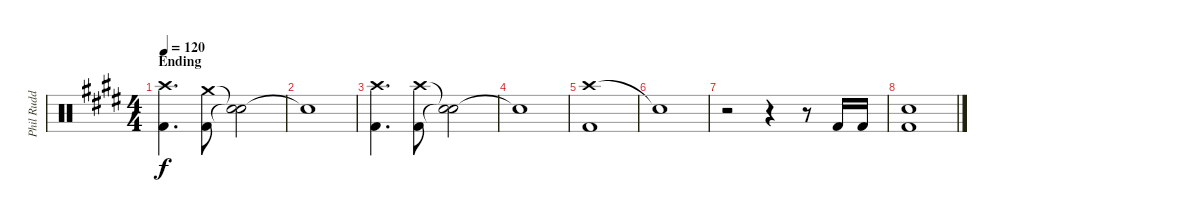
\track ("Phil Rudd (Drums)" "Phil Rudd ") {instrument percussion}
\staff {score}
\articulation defaults
\ts (4 4)
\section ("" "Ending")
\tempo 120
\clef neutral
\ks e
("Crash high (hit)" "Kick (hit) 2").4{d dy f} ("Crash medium (hit)" "Kick (hit) 2").8 ("Snare (hit)"{t} "Snare (hit)"{t}).2 |
"Snare (hit)"{t}.1 |
("Crash high (hit)" "Kick (hit) 2").4{d} ("Crash high (hit)" "Kick (hit) 2").8 ("Snare (hit)"{t} "Snare (hit)"{t}).2 |
"Snare (hit)"{t}.1 |
("Crash high (hit)" "Kick (hit) 2").1 |
"Snare (hit)"{t}.1 |
r.2 r.4 r.8 "Kick (hit) 2".16 "Kick (hit) 2".16 |
("Snare (hit) 2" "Kick (hit) 2").1
